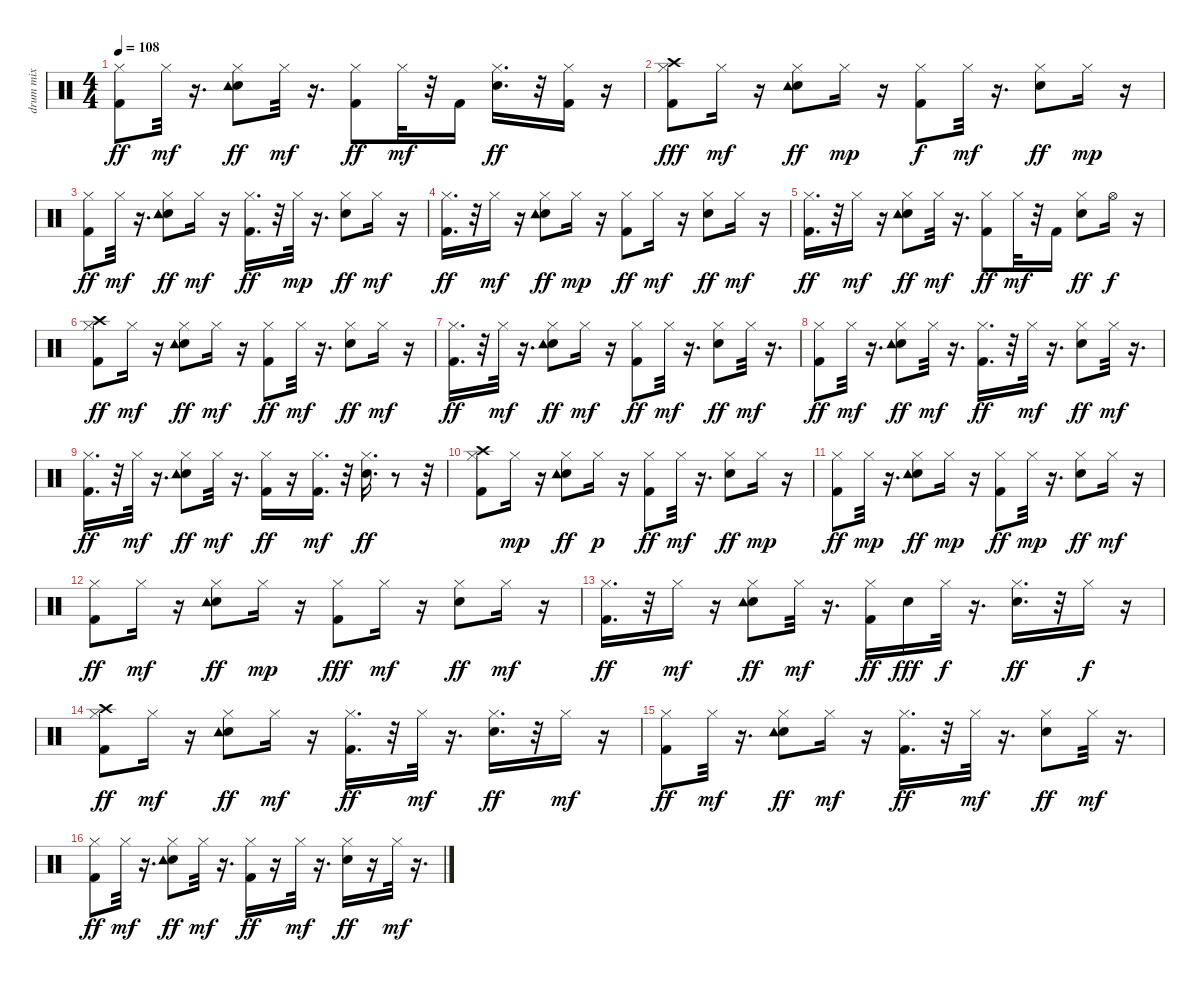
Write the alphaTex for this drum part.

\track ("drum mix" "drum mix") {instrument percussion}
\staff {score}
\articulation defaults
\ts (4 4)
\tempo 108
\clef neutral
\ks c
("Kick (hit) 2" "Hi-Hat (closed)").8{dy ff} "Hi-Hat (closed)".32{dy mf} r.16{d} ("Electric Snare (hit)" "Hi-Hat (closed)" "Tambourine (hit)").8{dy ff} "Hi-Hat (closed)".32{dy mf} r.16{d} ("Kick (hit) 2" "Hi-Hat (closed)").8{dy ff} "Hi-Hat (closed)".32{dy mf} r.32 "Kick (hit) 2".16 ("Electric Snare (hit)" "Hi-Hat (closed)").16{d dy ff} r.32 ("Kick (hit) 2" "Hi-Hat (closed)").16 r.16 |
("Kick (hit) 2" "Hi-Hat (closed)" "Crash high (hit)").8{dy fff} "Hi-Hat (closed)".16{dy mf} r.16 ("Electric Snare (hit)" "Hi-Hat (closed)" "Tambourine (hit)").8{dy ff} "Hi-Hat (closed)".16{dy mp} r.16 ("Kick (hit) 2" "Hi-Hat (closed)").8{dy f} "Hi-Hat (closed)".32{dy mf} r.16{d} ("Electric Snare (hit)" "Hi-Hat (closed)").8{dy ff} "Hi-Hat (closed)".16{dy mp} r.16 |
("Kick (hit) 2" "Hi-Hat (closed)").8{dy ff} "Hi-Hat (closed)".32{dy mf} r.16{d} ("Electric Snare (hit)" "Hi-Hat (closed)" "Tambourine (hit)").8{dy ff} "Hi-Hat (closed)".16{dy mf} r.16 ("Kick (hit) 2" "Hi-Hat (closed)").16{d dy ff} r.32 "Hi-Hat (closed)".32{dy mp} r.16{d} ("Electric Snare (hit)" "Hi-Hat (closed)").8{dy ff} "Hi-Hat (closed)".16{dy mf} r.16 |
("Kick (hit) 2" "Hi-Hat (closed)").16{d dy ff} r.32 "Hi-Hat (closed)".16{dy mf} r.16 ("Electric Snare (hit)" "Hi-Hat (closed)" "Tambourine (hit)").8{dy ff} "Hi-Hat (closed)".16{dy mp} r.16 ("Kick (hit) 2" "Hi-Hat (closed)").8{dy ff} "Hi-Hat (closed)".16{dy mf} r.16 ("Electric Snare (hit)" "Hi-Hat (closed)").8{dy ff} "Hi-Hat (closed)".16{dy mf} r.16 |
("Kick (hit) 2" "Hi-Hat (closed)").16{d dy ff} r.32 "Hi-Hat (closed)".16{dy mf} r.16 ("Electric Snare (hit)" "Hi-Hat (closed)" "Tambourine (hit)").8{dy ff} "Hi-Hat (closed)".32{dy mf} r.16{d} ("Kick (hit) 2" "Hi-Hat (closed)").8{dy ff} "Hi-Hat (closed)".32{dy mf} r.32 "Kick (hit) 2".16 ("Electric Snare (hit)" "Hi-Hat (closed)").8{dy ff} "Hi-Hat (open)".16{dy f} r.16 |
("Kick (hit) 2" "Hi-Hat (closed)" "Crash high (hit)").8{dy ff} "Hi-Hat (closed)".16{dy mf} r.16 ("Electric Snare (hit)" "Hi-Hat (closed)" "Tambourine (hit)").8{dy ff} "Hi-Hat (closed)".16{dy mf} r.16 ("Kick (hit) 2" "Hi-Hat (closed)").8{dy ff} "Hi-Hat (closed)".32{dy mf} r.16{d} ("Electric Snare (hit)" "Hi-Hat (closed)").8{dy ff} "Hi-Hat (closed)".16{dy mf} r.16 |
("Kick (hit) 2" "Hi-Hat (closed)").16{d dy ff} r.32 "Hi-Hat (closed)".32{dy mf} r.16{d} ("Electric Snare (hit)" "Hi-Hat (closed)" "Tambourine (hit)").8{dy ff} "Hi-Hat (closed)".16{dy mf} r.16 ("Kick (hit) 2" "Hi-Hat (closed)").8{dy ff} "Hi-Hat (closed)".32{dy mf} r.16{d} ("Electric Snare (hit)" "Hi-Hat (closed)").8{dy ff} "Hi-Hat (closed)".32{dy mf} r.16{d} |
("Kick (hit) 2" "Hi-Hat (closed)").8{dy ff volume 16} "Hi-Hat (closed)".32{dy mf volume 16} r.16{d} ("Electric Snare (hit)" "Hi-Hat (closed)" "Tambourine (hit)").8{dy ff volume 15} "Hi-Hat (closed)".32{dy mf volume 15} r.16{d} ("Kick (hit) 2" "Hi-Hat (closed)").16{d dy ff volume 15} r.32 "Hi-Hat (closed)".32{dy mf volume 15} r.16{d} ("Electric Snare (hit)" "Hi-Hat (closed)").8{dy ff volume 15} "Hi-Hat (closed)".32{dy mf volume 15} r.16{d} |
("Kick (hit) 2" "Hi-Hat (closed)").16{d dy ff volume 15} r.32 "Hi-Hat (closed)".32{dy mf volume 14} r.16{d} ("Electric Snare (hit)" "Hi-Hat (closed)" "Tambourine (hit)").8{dy ff volume 14} "Hi-Hat (closed)".32{dy mf volume 14} r.16{d} ("Kick (hit) 2" "Hi-Hat (closed)").16{dy ff volume 13} r.16 ("Kick (hit) 2" "Hi-Hat (closed)").16{d dy mf volume 13} r.32 ("Electric Snare (hit)" "Hi-Hat (closed)").16{d dy ff volume 13} r.8 r.32 |
("Kick (hit) 2" "Hi-Hat (closed)" "Crash high (hit)").8{volume 12} "Hi-Hat (closed)".16{dy mp volume 12} r.16 ("Electric Snare (hit)" "Hi-Hat (closed)" "Tambourine (hit)").8{dy ff volume 12} "Hi-Hat (closed)".16{dy p volume 11} r.16 ("Kick (hit) 2" "Hi-Hat (closed)").8{dy ff volume 11} "Hi-Hat (closed)".32{dy mf volume 11} r.16{d} ("Electric Snare (hit)" "Hi-Hat (closed)").8{dy ff volume 11} "Hi-Hat (closed)".16{dy mp volume 11} r.16 |
("Kick (hit) 2" "Hi-Hat (closed)").8{dy ff volume 10} "Hi-Hat (closed)".32{dy mp volume 10} r.16{d} ("Electric Snare (hit)" "Hi-Hat (closed)" "Tambourine (hit)").8{dy ff volume 10} "Hi-Hat (closed)".16{dy mp volume 10} r.16 ("Kick (hit) 2" "Hi-Hat (closed)").8{dy ff volume 9} "Hi-Hat (closed)".32{dy mp volume 9} r.16{d} ("Electric Snare (hit)" "Hi-Hat (closed)").8{dy ff volume 9} "Hi-Hat (closed)".16{dy mf volume 9} r.16 |
("Kick (hit) 2" "Hi-Hat (closed)").8{dy ff volume 9} "Hi-Hat (closed)".16{dy mf volume 8} r.16 ("Electric Snare (hit)" "Hi-Hat (closed)" "Tambourine (hit)").8{dy ff volume 8} "Hi-Hat (closed)".16{dy mp volume 8} r.16 ("Kick (hit) 2" "Hi-Hat (closed)").8{dy fff volume 8} "Hi-Hat (closed)".16{dy mf volume 7} r.16 ("Electric Snare (hit)" "Hi-Hat (closed)").8{dy ff volume 7} "Hi-Hat (closed)".16{dy mf volume 7} r.16 |
("Kick (hit) 2" "Hi-Hat (closed)").16{d dy ff volume 7} r.32 "Hi-Hat (closed)".16{dy mf volume 7} r.16 ("Electric Snare (hit)" "Hi-Hat (closed)" "Tambourine (hit)").8{dy ff volume 7} "Hi-Hat (closed)".32{dy mf volume 6} r.16{d} ("Kick (hit) 2" "Hi-Hat (closed)").16{dy ff volume 6} "Electric Snare (hit)".16{dy fff volume 6} "Hi-Hat (closed)".32{dy f volume 6} r.16{d} ("Electric Snare (hit)" "Hi-Hat (closed)").16{d dy ff volume 6} r.32 "Hi-Hat (closed)".16{dy f volume 6} r.16 |
("Kick (hit) 2" "Hi-Hat (closed)" "Crash high (hit)").8{dy ff volume 5} "Hi-Hat (closed)".16{dy mf volume 5} r.16 ("Electric Snare (hit)" "Hi-Hat (closed)" "Tambourine (hit)").8{dy ff volume 5} "Hi-Hat (closed)".16{dy mf volume 5} r.16 ("Kick (hit) 2" "Hi-Hat (closed)").16{d dy ff volume 5} r.32 "Hi-Hat (closed)".32{dy mf volume 5} r.16{d} ("Electric Snare (hit)" "Hi-Hat (closed)").16{d dy ff volume 4} r.32 "Hi-Hat (closed)".16{dy mf volume 4} r.16 |
("Kick (hit) 2" "Hi-Hat (closed)").8{dy ff volume 4} "Hi-Hat (closed)".32{dy mf volume 4} r.16{d} ("Electric Snare (hit)" "Hi-Hat (closed)" "Tambourine (hit)").8{dy ff volume 4} "Hi-Hat (closed)".16{dy mf volume 3} r.16 ("Kick (hit) 2" "Hi-Hat (closed)").16{d dy ff volume 3} r.32 "Hi-Hat (closed)".32{dy mf volume 3} r.16{d} ("Electric Snare (hit)" "Hi-Hat (closed)").8{dy ff volume 3} "Hi-Hat (closed)".32{dy mf volume 3} r.16{d} |
("Kick (hit) 2" "Hi-Hat (closed)").8{dy ff volume 3} "Hi-Hat (closed)".32{dy mf volume 2} r.16{d} ("Electric Snare (hit)" "Hi-Hat (closed)" "Tambourine (hit)").8{dy ff volume 2} "Hi-Hat (closed)".32{dy mf volume 2} r.16{d} ("Kick (hit) 2" "Hi-Hat (closed)").16{dy ff volume 2} r.16 "Hi-Hat (closed)".32{dy mf volume 2} r.16{d} ("Electric Snare (hit)" "Hi-Hat (closed)").16{dy ff volume 2} r.16 "Hi-Hat (closed)".32{dy mf volume 1} r.16{d}
